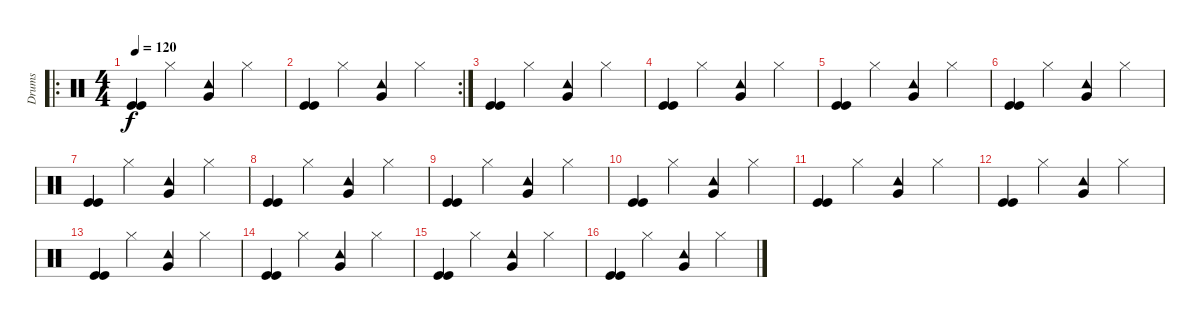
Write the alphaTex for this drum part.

\track ("Drums" "Drums") {instrument percussion}
\staff {score}
\articulation defaults
\ro
\ts (4 4)
\tempo 120
\clef neutral
\ks c
("Kick (hit)" "Kick (hit)").4{dy f} "Hi-Hat (closed)".4 ("Tambourine (hit)" "Very Low Tom (hit)").4 "Hi-Hat (closed)".4 |
\rc 2
("Kick (hit)" "Kick (hit)").4 "Hi-Hat (closed)".4 ("Tambourine (hit)" "Very Low Tom (hit)").4 "Hi-Hat (closed)".4 |
("Kick (hit)" "Kick (hit)").4 "Hi-Hat (closed)".4 ("Tambourine (hit)" "Very Low Tom (hit)").4 "Hi-Hat (closed)".4 |
("Kick (hit)" "Kick (hit)").4 "Hi-Hat (closed)".4 ("Tambourine (hit)" "Very Low Tom (hit)").4 "Hi-Hat (closed)".4 |
("Kick (hit)" "Kick (hit)").4 "Hi-Hat (closed)".4 ("Tambourine (hit)" "Very Low Tom (hit)").4 "Hi-Hat (closed)".4 |
("Kick (hit)" "Kick (hit)").4 "Hi-Hat (closed)".4 ("Tambourine (hit)" "Very Low Tom (hit)").4 "Hi-Hat (closed)".4 |
("Kick (hit)" "Kick (hit)").4 "Hi-Hat (closed)".4 ("Tambourine (hit)" "Very Low Tom (hit)").4 "Hi-Hat (closed)".4 |
("Kick (hit)" "Kick (hit)").4 "Hi-Hat (closed)".4 ("Tambourine (hit)" "Very Low Tom (hit)").4 "Hi-Hat (closed)".4 |
("Kick (hit)" "Kick (hit)").4 "Hi-Hat (closed)".4 ("Tambourine (hit)" "Very Low Tom (hit)").4 "Hi-Hat (closed)".4 |
("Kick (hit)" "Kick (hit)").4 "Hi-Hat (closed)".4 ("Tambourine (hit)" "Very Low Tom (hit)").4 "Hi-Hat (closed)".4 |
("Kick (hit)" "Kick (hit)").4 "Hi-Hat (closed)".4 ("Tambourine (hit)" "Very Low Tom (hit)").4 "Hi-Hat (closed)".4 |
("Kick (hit)" "Kick (hit)").4 "Hi-Hat (closed)".4 ("Tambourine (hit)" "Very Low Tom (hit)").4 "Hi-Hat (closed)".4 |
("Kick (hit)" "Kick (hit)").4 "Hi-Hat (closed)".4 ("Tambourine (hit)" "Very Low Tom (hit)").4 "Hi-Hat (closed)".4 |
("Kick (hit)" "Kick (hit)").4 "Hi-Hat (closed)".4 ("Tambourine (hit)" "Very Low Tom (hit)").4 "Hi-Hat (closed)".4 |
("Kick (hit)" "Kick (hit)").4 "Hi-Hat (closed)".4 ("Tambourine (hit)" "Very Low Tom (hit)").4 "Hi-Hat (closed)".4 |
("Kick (hit)" "Kick (hit)").4 "Hi-Hat (closed)".4 ("Tambourine (hit)" "Very Low Tom (hit)").4 "Hi-Hat (closed)".4
